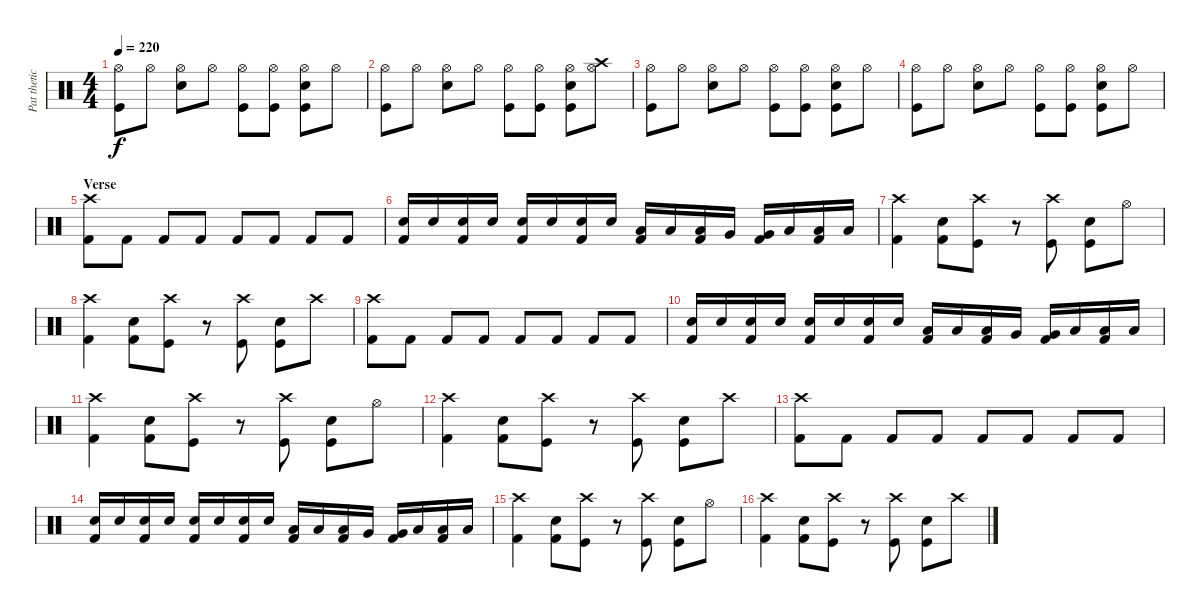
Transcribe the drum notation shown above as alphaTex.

\track ("Pat thetic " "Pat thetic") {instrument percussion}
\staff {score}
\articulation defaults
\ts (4 4)
\tempo 220
\clef neutral
\ks c
("Kick (hit)" "Hi-Hat (open)").8{dy f} "Hi-Hat (open)".8 ("Electric Snare (hit)" "Hi-Hat (open)").8 "Hi-Hat (open)".8 ("Kick (hit)" "Hi-Hat (open)").8 ("Kick (hit)" "Hi-Hat (open)").8 ("Kick (hit)" "Electric Snare (hit)" "Hi-Hat (open)").8 "Hi-Hat (open)".8 |
("Kick (hit)" "Hi-Hat (open)").8 "Hi-Hat (open)".8 ("Electric Snare (hit)" "Hi-Hat (open)").8 "Hi-Hat (open)".8 ("Kick (hit)" "Hi-Hat (open)").8 ("Kick (hit)" "Hi-Hat (open)").8 ("Kick (hit)" "Electric Snare (hit)" "Hi-Hat (open)").8 ("Crash high (hit)" "Hi-Hat (open)").8 |
("Kick (hit)" "Hi-Hat (open)").8 "Hi-Hat (open)".8 ("Electric Snare (hit)" "Hi-Hat (open)").8 "Hi-Hat (open)".8 ("Kick (hit)" "Hi-Hat (open)").8 ("Kick (hit)" "Hi-Hat (open)").8 ("Kick (hit)" "Electric Snare (hit)" "Hi-Hat (open)").8 "Hi-Hat (open)".8 |
("Kick (hit)" "Hi-Hat (open)").8 "Hi-Hat (open)".8 ("Electric Snare (hit)" "Hi-Hat (open)").8 "Hi-Hat (open)".8 ("Kick (hit)" "Hi-Hat (open)").8 ("Kick (hit)" "Hi-Hat (open)").8 ("Kick (hit)" "Electric Snare (hit)" "Hi-Hat (open)").8 "Hi-Hat (open)".8 |
\section ("" "Verse")
("Kick (hit) 2" "Crash high (hit)").8 "Kick (hit) 2".8 "Kick (hit) 2".8 "Kick (hit) 2".8 "Kick (hit) 2".8 "Kick (hit) 2".8 "Kick (hit) 2".8 "Kick (hit) 2".8 |
("Kick (hit) 2" "Electric Snare (hit)").16 "Electric Snare (hit)".16 ("Kick (hit) 2" "Electric Snare (hit)").16 "Electric Snare (hit)".16 ("Kick (hit) 2" "Electric Snare (hit)").16 "Electric Snare (hit)".16 ("Kick (hit) 2" "Electric Snare (hit)").16 "Electric Snare (hit)".16 ("Kick (hit) 2" "Low Tom (hit)").16 "Low Tom (hit)".16 ("Kick (hit) 2" "Low Tom (hit)").16 "Very Low Tom (hit)".16 ("Kick (hit) 2" "Very Low Tom (hit)").16 "Low Floor Tom (hit)".16 ("Kick (hit) 2" "Low Floor Tom (hit)").16 "Low Floor Tom (hit)".16 |
("Kick (hit) 2" "Crash high (hit)").4 ("Kick (hit) 2" "Electric Snare (hit)").8 ("Kick (hit)" "Crash high (hit)").8 r.8 ("Kick (hit)" "Crash high (hit)").8 ("Kick (hit)" "Electric Snare (hit)").8 "Hi-Hat (open)".8 |
("Kick (hit) 2" "Crash high (hit)").4 ("Kick (hit) 2" "Electric Snare (hit)").8 ("Kick (hit)" "Crash high (hit)").8 r.8 ("Kick (hit)" "Crash high (hit)").8 ("Kick (hit)" "Electric Snare (hit)").8 "Crash high (hit)".8 |
("Kick (hit) 2" "Crash high (hit)").8 "Kick (hit) 2".8 "Kick (hit) 2".8 "Kick (hit) 2".8 "Kick (hit) 2".8 "Kick (hit) 2".8 "Kick (hit) 2".8 "Kick (hit) 2".8 |
("Kick (hit) 2" "Electric Snare (hit)").16 "Electric Snare (hit)".16 ("Kick (hit) 2" "Electric Snare (hit)").16 "Electric Snare (hit)".16 ("Kick (hit) 2" "Electric Snare (hit)").16 "Electric Snare (hit)".16 ("Kick (hit) 2" "Electric Snare (hit)").16 "Electric Snare (hit)".16 ("Kick (hit) 2" "Low Tom (hit)").16 "Low Tom (hit)".16 ("Kick (hit) 2" "Low Tom (hit)").16 "Very Low Tom (hit)".16 ("Kick (hit) 2" "Very Low Tom (hit)").16 "Low Floor Tom (hit)".16 ("Kick (hit) 2" "Low Floor Tom (hit)").16 "Low Floor Tom (hit)".16 |
("Kick (hit) 2" "Crash high (hit)").4 ("Kick (hit) 2" "Electric Snare (hit)").8 ("Kick (hit)" "Crash high (hit)").8 r.8 ("Kick (hit)" "Crash high (hit)").8 ("Kick (hit)" "Electric Snare (hit)").8 "Hi-Hat (open)".8 |
("Kick (hit) 2" "Crash high (hit)").4 ("Kick (hit) 2" "Electric Snare (hit)").8 ("Kick (hit)" "Crash high (hit)").8 r.8 ("Kick (hit)" "Crash high (hit)").8 ("Kick (hit)" "Electric Snare (hit)").8 "Crash high (hit)".8 |
("Kick (hit) 2" "Crash high (hit)").8 "Kick (hit) 2".8 "Kick (hit) 2".8 "Kick (hit) 2".8 "Kick (hit) 2".8 "Kick (hit) 2".8 "Kick (hit) 2".8 "Kick (hit) 2".8 |
("Kick (hit) 2" "Electric Snare (hit)").16 "Electric Snare (hit)".16 ("Kick (hit) 2" "Electric Snare (hit)").16 "Electric Snare (hit)".16 ("Kick (hit) 2" "Electric Snare (hit)").16 "Electric Snare (hit)".16 ("Kick (hit) 2" "Electric Snare (hit)").16 "Electric Snare (hit)".16 ("Kick (hit) 2" "Low Tom (hit)").16 "Low Tom (hit)".16 ("Kick (hit) 2" "Low Tom (hit)").16 "Very Low Tom (hit)".16 ("Kick (hit) 2" "Very Low Tom (hit)").16 "Low Floor Tom (hit)".16 ("Kick (hit) 2" "Low Floor Tom (hit)").16 "Low Floor Tom (hit)".16 |
("Kick (hit) 2" "Crash high (hit)").4 ("Kick (hit) 2" "Electric Snare (hit)").8 ("Kick (hit)" "Crash high (hit)").8 r.8 ("Kick (hit)" "Crash high (hit)").8 ("Kick (hit)" "Electric Snare (hit)").8 "Hi-Hat (open)".8 |
("Kick (hit) 2" "Crash high (hit)").4 ("Kick (hit) 2" "Electric Snare (hit)").8 ("Kick (hit)" "Crash high (hit)").8 r.8 ("Kick (hit)" "Crash high (hit)").8 ("Kick (hit)" "Electric Snare (hit)").8 "Crash high (hit)".8
